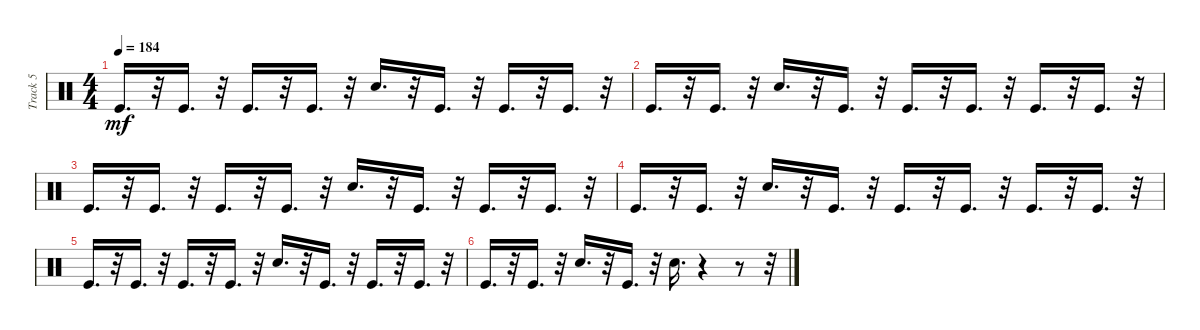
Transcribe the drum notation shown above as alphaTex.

\track ("Track 5" "Track 5") {instrument percussion}
\staff {score}
\articulation defaults
\ts (4 4)
\tempo 184
\clef neutral
\ks c "Kick (hit)".16{d dy mf}
r.32 "Kick (hit)".16{d} r.32 "Kick (hit)".16{d} r.32 "Kick (hit)".16{d} r.32 "Snare (hit) 2".16{d} r.32 "Kick (hit)".16{d} r.32 "Kick (hit)".16{d} r.32 "Kick (hit)".16{d} r.32 |
"Kick (hit)".16{d} r.32 "Kick (hit)".16{d} r.32 "Snare (hit) 2".16{d} r.32 "Kick (hit)".16{d} r.32 "Kick (hit)".16{d} r.32 "Kick (hit)".16{d} r.32 "Kick (hit)".16{d} r.32 "Kick (hit)".16{d} r.32 |
"Kick (hit)".16{d} r.32 "Kick (hit)".16{d} r.32 "Kick (hit)".16{d} r.32 "Kick (hit)".16{d} r.32 "Snare (hit) 2".16{d} r.32 "Kick (hit)".16{d} r.32 "Kick (hit)".16{d} r.32 "Kick (hit)".16{d} r.32 |
"Kick (hit)".16{d} r.32 "Kick (hit)".16{d} r.32 "Snare (hit) 2".16{d} r.32 "Kick (hit)".16{d} r.32 "Kick (hit)".16{d} r.32 "Kick (hit)".16{d} r.32 "Kick (hit)".16{d} r.32 "Kick (hit)".16{d} r.32 |
"Kick (hit)".16{d} r.32 "Kick (hit)".16{d} r.32 "Kick (hit)".16{d} r.32 "Kick (hit)".16{d} r.32 "Snare (hit) 2".16{d} r.32 "Kick (hit)".16{d} r.32 "Kick (hit)".16{d} r.32 "Kick (hit)".16{d} r.32 |
"Kick (hit)".16{d} r.32 "Kick (hit)".16{d} r.32 "Snare (hit) 2".16{d} r.32 "Kick (hit)".16{d} r.32 "Snare (hit) 2".16{d} r.4 r.8 r.32
